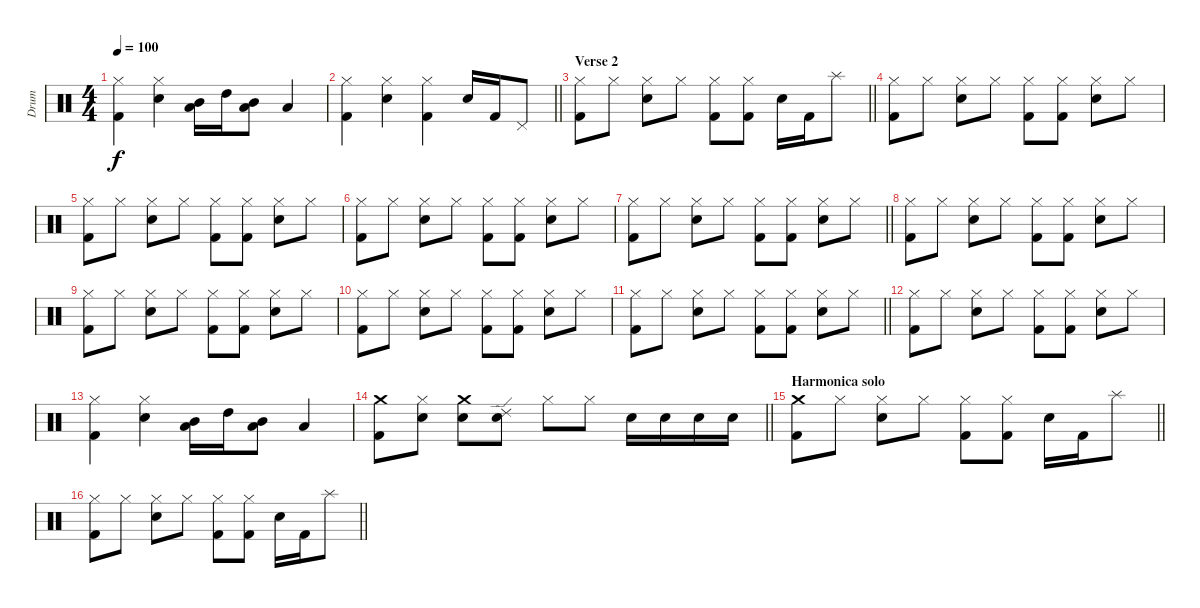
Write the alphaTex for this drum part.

\track ("Drum" "Drum") {instrument percussion}
\staff {score}
\articulation defaults
\ts (4 4)
\tempo 100
\clef neutral
\ks c
("Hi-Hat (closed)" "Kick (hit) 2").4{dy f} ("Hi-Hat (closed)" "Snare (hit) 2").4 ("Mid Tom (hit)" "Low Tom (hit)").16 "High Tom (hit)".16 ("Mid Tom (hit)" "Low Tom (hit)").8 "Low Tom (hit)".4 |
\barLineRight lightlight
("Hi-Hat (closed)" "Kick (hit) 2").4 ("Hi-Hat (closed)" "Electric Snare (hit)").4 ("Hi-Hat (closed)" "Kick (hit) 2").4 "Electric Snare (hit)".16 "Kick (hit) 2".16 "Pedal Hi-Hat (hit)".8 |
\section ("" "Verse 2")
\barLineRight lightlight
("Hi-Hat (closed)" "Kick (hit) 2").8 "Hi-Hat (closed)".8 ("Hi-Hat (closed)" "Snare (hit) 2").8 "Hi-Hat (closed)".8 ("Hi-Hat (closed)" "Kick (hit) 2").8 ("Hi-Hat (closed)" "Kick (hit) 2").8 "Electric Snare (hit)".16 "Kick (hit) 2".16 "Splash (hit)".8 |
("Hi-Hat (closed)" "Kick (hit) 2").8 "Hi-Hat (closed)".8 ("Hi-Hat (closed)" "Snare (hit) 2").8 "Hi-Hat (closed)".8 ("Hi-Hat (closed)" "Kick (hit) 2").8 ("Hi-Hat (closed)" "Kick (hit) 2").8 ("Hi-Hat (closed)" "Snare (hit) 2").8 "Hi-Hat (closed)".8 |
("Hi-Hat (closed)" "Kick (hit) 2").8 "Hi-Hat (closed)".8 ("Hi-Hat (closed)" "Snare (hit) 2").8 "Hi-Hat (closed)".8 ("Hi-Hat (closed)" "Kick (hit) 2").8 ("Hi-Hat (closed)" "Kick (hit) 2").8 ("Hi-Hat (closed)" "Snare (hit) 2").8 "Hi-Hat (closed)".8 |
("Hi-Hat (closed)" "Kick (hit) 2").8 "Hi-Hat (closed)".8 ("Hi-Hat (closed)" "Snare (hit) 2").8 "Hi-Hat (closed)".8 ("Hi-Hat (closed)" "Kick (hit) 2").8 ("Hi-Hat (closed)" "Kick (hit) 2").8 ("Hi-Hat (closed)" "Snare (hit) 2").8 "Hi-Hat (closed)".8 |
\barLineRight lightlight
("Hi-Hat (closed)" "Kick (hit) 2").8 "Hi-Hat (closed)".8 ("Hi-Hat (closed)" "Snare (hit) 2").8 "Hi-Hat (closed)".8 ("Hi-Hat (closed)" "Kick (hit) 2").8 ("Hi-Hat (closed)" "Kick (hit) 2").8 ("Hi-Hat (closed)" "Snare (hit) 2").8 "Hi-Hat (closed)".8 |
("Hi-Hat (closed)" "Kick (hit) 2").8 "Hi-Hat (closed)".8 ("Hi-Hat (closed)" "Snare (hit) 2").8 "Hi-Hat (closed)".8 ("Hi-Hat (closed)" "Kick (hit) 2").8 ("Hi-Hat (closed)" "Kick (hit) 2").8 ("Hi-Hat (closed)" "Snare (hit) 2").8 "Hi-Hat (closed)".8 |
("Hi-Hat (closed)" "Kick (hit) 2").8 "Hi-Hat (closed)".8 ("Hi-Hat (closed)" "Snare (hit) 2").8 "Hi-Hat (closed)".8 ("Hi-Hat (closed)" "Kick (hit) 2").8 ("Hi-Hat (closed)" "Kick (hit) 2").8 ("Hi-Hat (closed)" "Snare (hit) 2").8 "Hi-Hat (closed)".8 |
("Hi-Hat (closed)" "Kick (hit) 2").8 "Hi-Hat (closed)".8 ("Hi-Hat (closed)" "Snare (hit) 2").8 "Hi-Hat (closed)".8 ("Hi-Hat (closed)" "Kick (hit) 2").8 ("Hi-Hat (closed)" "Kick (hit) 2").8 ("Hi-Hat (closed)" "Snare (hit) 2").8 "Hi-Hat (closed)".8 |
\barLineRight lightlight
("Hi-Hat (closed)" "Kick (hit) 2").8 "Hi-Hat (closed)".8 ("Hi-Hat (closed)" "Snare (hit) 2").8 "Hi-Hat (closed)".8 ("Hi-Hat (closed)" "Kick (hit) 2").8 ("Hi-Hat (closed)" "Kick (hit) 2").8 ("Hi-Hat (closed)" "Snare (hit) 2").8 "Hi-Hat (closed)".8 |
("Hi-Hat (closed)" "Kick (hit) 2").8 "Hi-Hat (closed)".8 ("Hi-Hat (closed)" "Snare (hit) 2").8 "Hi-Hat (closed)".8 ("Hi-Hat (closed)" "Kick (hit) 2").8 ("Hi-Hat (closed)" "Kick (hit) 2").8 ("Hi-Hat (closed)" "Snare (hit) 2").8 "Hi-Hat (closed)".8 |
("Hi-Hat (closed)" "Kick (hit) 2").4 ("Hi-Hat (closed)" "Snare (hit) 2").4 ("Mid Tom (hit)" "Low Tom (hit)").16 "High Tom (hit)".16 ("Mid Tom (hit)" "Low Tom (hit)").8 "Low Tom (hit)".4 |
\barLineRight lightlight
("Crash medium (hit)" "Kick (hit) 2").8 ("Hi-Hat (closed)" "Electric Snare (hit)").8 ("Crash medium (hit)" "Snare (hit) 2").8 ("Ride (edge) 2" "Electric Snare (hit)").8 "Hi-Hat (closed)".8 "Hi-Hat (closed)".8 "Electric Snare (hit)".16 "Electric Snare (hit)".16 "Electric Snare (hit)".16 "Electric Snare (hit)".16 |
\section ("" "Harmonica solo")
\barLineRight lightlight
("Crash medium (hit)" "Kick (hit) 2").8 "Hi-Hat (closed)".8 ("Hi-Hat (closed)" "Snare (hit) 2").8 "Hi-Hat (closed)".8 ("Hi-Hat (closed)" "Kick (hit) 2").8 ("Hi-Hat (closed)" "Kick (hit) 2").8 "Electric Snare (hit)".16 "Kick (hit) 2".16 "Splash (hit)".8 |
\barLineRight lightlight
("Hi-Hat (closed)" "Kick (hit) 2").8 "Hi-Hat (closed)".8 ("Hi-Hat (closed)" "Snare (hit) 2").8 "Hi-Hat (closed)".8 ("Hi-Hat (closed)" "Kick (hit) 2").8 ("Hi-Hat (closed)" "Kick (hit) 2").8 "Electric Snare (hit)".16 "Kick (hit) 2".16 "Splash (hit)".8
